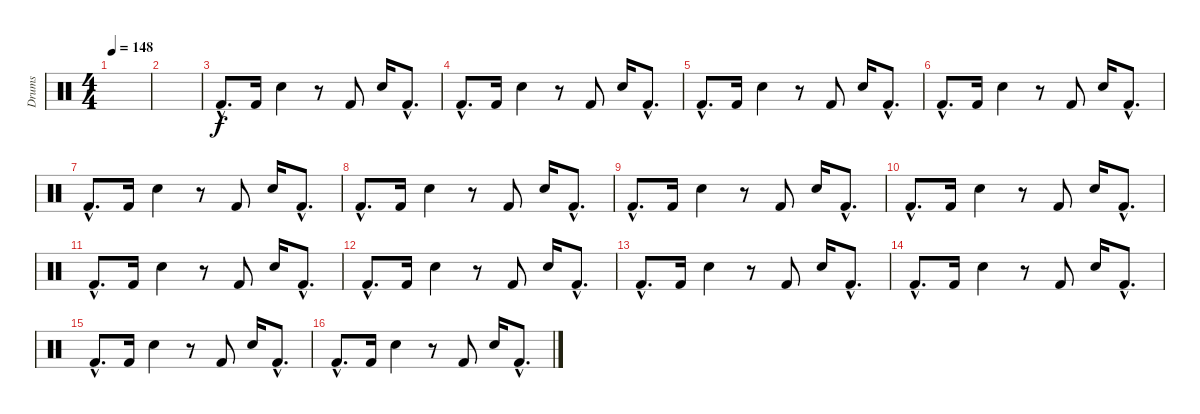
\track ("Drums" "Drums") {instrument percussion}
\staff {score}
\articulation defaults
\ts (4 4)
\tempo 148
\clef neutral
\ks c
|
|
"Kick (hit) 2"{hac}.8{d} "Kick (hit) 2".16 "Electric Snare (hit)".4 r.8 "Kick (hit) 2".8 "Electric Snare (hit)".16 "Kick (hit) 2"{hac}.8{d} |
"Kick (hit) 2"{hac}.8{d} "Kick (hit) 2".16 "Electric Snare (hit)".4 r.8 "Kick (hit) 2".8 "Electric Snare (hit)".16 "Kick (hit) 2"{hac}.8{d} |
"Kick (hit) 2"{hac}.8{d} "Kick (hit) 2".16 "Electric Snare (hit)".4 r.8 "Kick (hit) 2".8 "Electric Snare (hit)".16 "Kick (hit) 2"{hac}.8{d} |
"Kick (hit) 2"{hac}.8{d} "Kick (hit) 2".16 "Electric Snare (hit)".4 r.8 "Kick (hit) 2".8 "Electric Snare (hit)".16 "Kick (hit) 2"{hac}.8{d} |
"Kick (hit) 2"{hac}.8{d} "Kick (hit) 2".16 "Electric Snare (hit)".4 r.8 "Kick (hit) 2".8 "Electric Snare (hit)".16 "Kick (hit) 2"{hac}.8{d} |
"Kick (hit) 2"{hac}.8{d} "Kick (hit) 2".16 "Electric Snare (hit)".4 r.8 "Kick (hit) 2".8 "Electric Snare (hit)".16 "Kick (hit) 2"{hac}.8{d} |
"Kick (hit) 2"{hac}.8{d} "Kick (hit) 2".16 "Electric Snare (hit)".4 r.8 "Kick (hit) 2".8 "Electric Snare (hit)".16 "Kick (hit) 2"{hac}.8{d} |
"Kick (hit) 2"{hac}.8{d} "Kick (hit) 2".16 "Electric Snare (hit)".4 r.8 "Kick (hit) 2".8 "Electric Snare (hit)".16 "Kick (hit) 2"{hac}.8{d} |
"Kick (hit) 2"{hac}.8{d} "Kick (hit) 2".16 "Electric Snare (hit)".4 r.8 "Kick (hit) 2".8 "Electric Snare (hit)".16 "Kick (hit) 2"{hac}.8{d} |
"Kick (hit) 2"{hac}.8{d} "Kick (hit) 2".16 "Electric Snare (hit)".4 r.8 "Kick (hit) 2".8 "Electric Snare (hit)".16 "Kick (hit) 2"{hac}.8{d} |
"Kick (hit) 2"{hac}.8{d} "Kick (hit) 2".16 "Electric Snare (hit)".4 r.8 "Kick (hit) 2".8 "Electric Snare (hit)".16 "Kick (hit) 2"{hac}.8{d} |
"Kick (hit) 2"{hac}.8{d} "Kick (hit) 2".16 "Electric Snare (hit)".4 r.8 "Kick (hit) 2".8 "Electric Snare (hit)".16 "Kick (hit) 2"{hac}.8{d} |
"Kick (hit) 2"{hac}.8{d} "Kick (hit) 2".16 "Electric Snare (hit)".4 r.8 "Kick (hit) 2".8 "Electric Snare (hit)".16 "Kick (hit) 2"{hac}.8{d} |
"Kick (hit) 2"{hac}.8{d} "Kick (hit) 2".16 "Electric Snare (hit)".4 r.8 "Kick (hit) 2".8 "Electric Snare (hit)".16 "Kick (hit) 2"{hac}.8{d}
